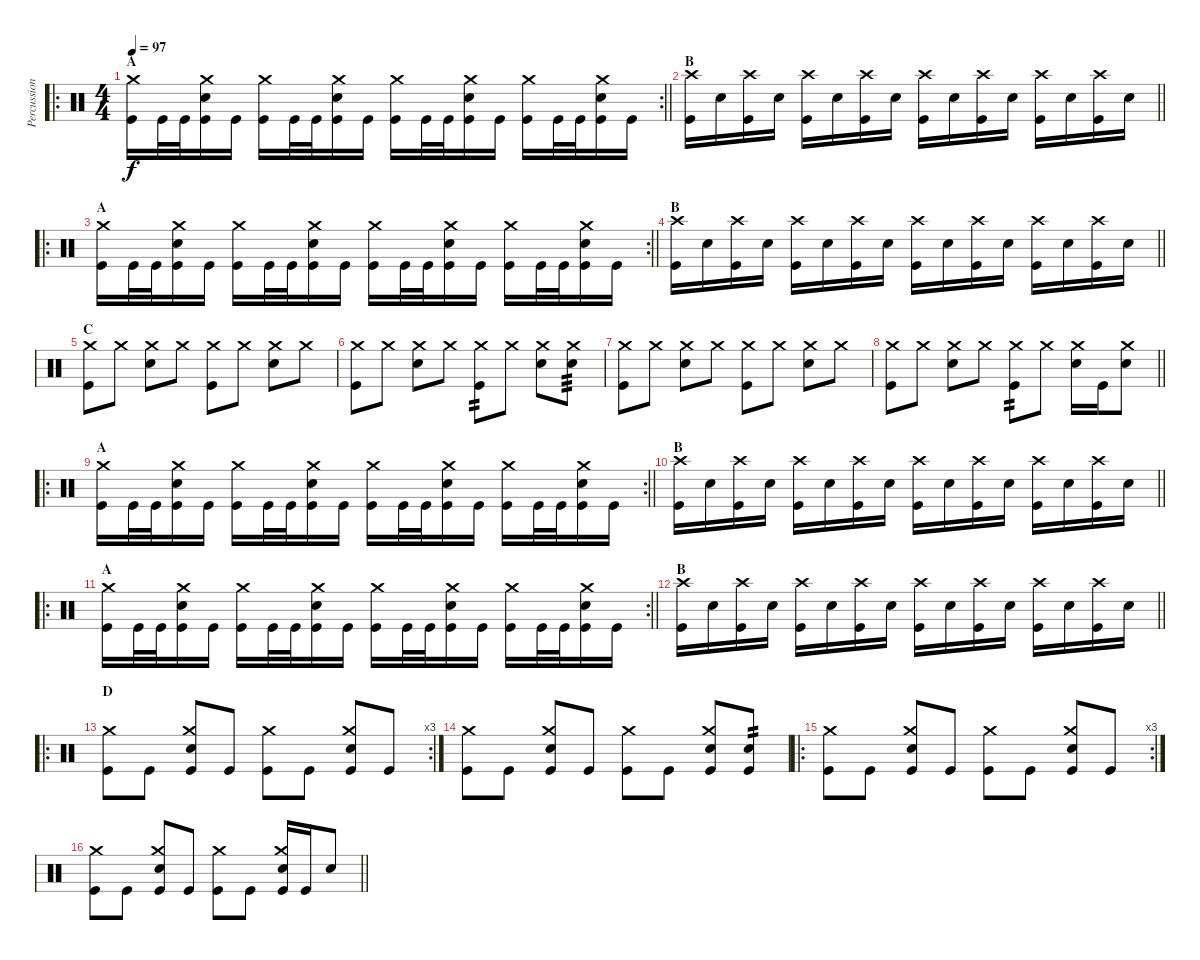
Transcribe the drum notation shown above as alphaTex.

\track ("Percussion" "Percussion") {instrument percussion}
\staff {score}
\articulation defaults
\ro
\rc 2
\ts (4 4)
\section ("" "A")
\tempo 97
\clef neutral
\barLineRight lightlight
\ks c
("Kick (hit)" "Crash medium (hit)").16{dy f} "Kick (hit)".32 "Kick (hit)".32 ("Kick (hit)" "Snare (hit) 2" "Crash medium (hit)").16 "Kick (hit)".16 ("Kick (hit)" "Crash medium (hit)").16 "Kick (hit)".32 "Kick (hit)".32 ("Kick (hit)" "Snare (hit) 2" "Crash medium (hit)").16 "Kick (hit)".16 ("Kick (hit)" "Crash medium (hit)").16 "Kick (hit)".32 "Kick (hit)".32 ("Kick (hit)" "Snare (hit) 2" "Crash medium (hit)").16 "Kick (hit)".16 ("Kick (hit)" "Crash medium (hit)").16 "Kick (hit)".32 "Kick (hit)".32 ("Kick (hit)" "Snare (hit) 2" "Crash medium (hit)").16 "Kick (hit)".16 |
\section ("" "B")
\barLineRight lightlight
("Kick (hit)" "Crash high (hit)").16 "Snare (hit) 2".16 ("Kick (hit)" "Crash high (hit)").16 "Snare (hit) 2".16 ("Kick (hit)" "Crash high (hit)").16 "Snare (hit) 2".16 ("Kick (hit)" "Crash high (hit)").16 "Snare (hit) 2".16 ("Kick (hit)" "Crash high (hit)").16 "Snare (hit) 2".16 ("Kick (hit)" "Crash high (hit)").16 "Snare (hit) 2".16 ("Kick (hit)" "Crash high (hit)").16 "Snare (hit) 2".16 ("Kick (hit)" "Crash high (hit)").16 "Snare (hit) 2".16 |
\ro
\rc 2
\section ("" "A")
\barLineRight lightlight
("Kick (hit)" "Crash medium (hit)").16 "Kick (hit)".32 "Kick (hit)".32 ("Kick (hit)" "Snare (hit) 2" "Crash medium (hit)").16 "Kick (hit)".16 ("Kick (hit)" "Crash medium (hit)").16 "Kick (hit)".32 "Kick (hit)".32 ("Kick (hit)" "Snare (hit) 2" "Crash medium (hit)").16 "Kick (hit)".16 ("Kick (hit)" "Crash medium (hit)").16 "Kick (hit)".32 "Kick (hit)".32 ("Kick (hit)" "Snare (hit) 2" "Crash medium (hit)").16 "Kick (hit)".16 ("Kick (hit)" "Crash medium (hit)").16 "Kick (hit)".32 "Kick (hit)".32 ("Kick (hit)" "Snare (hit) 2" "Crash medium (hit)").16 "Kick (hit)".16 |
\section ("" "B")
\barLineRight lightlight
("Kick (hit)" "Crash high (hit)").16 "Snare (hit) 2".16 ("Kick (hit)" "Crash high (hit)").16 "Snare (hit) 2".16 ("Kick (hit)" "Crash high (hit)").16 "Snare (hit) 2".16 ("Kick (hit)" "Crash high (hit)").16 "Snare (hit) 2".16 ("Kick (hit)" "Crash high (hit)").16 "Snare (hit) 2".16 ("Kick (hit)" "Crash high (hit)").16 "Snare (hit) 2".16 ("Kick (hit)" "Crash high (hit)").16 "Snare (hit) 2".16 ("Kick (hit)" "Crash high (hit)").16 "Snare (hit) 2".16 |
\section ("" "C")
("Kick (hit)" "Crash medium (hit)").8 "Crash medium (hit)".8 ("Snare (hit) 2" "Crash medium (hit)").8 "Crash medium (hit)".8 ("Kick (hit)" "Crash medium (hit)").8 "Crash medium (hit)".8 ("Snare (hit) 2" "Crash medium (hit)").8 "Crash medium (hit)".8 |
("Kick (hit)" "Crash medium (hit)").8 "Crash medium (hit)".8 ("Snare (hit) 2" "Crash medium (hit)").8 "Crash medium (hit)".8 ("Kick (hit)" "Crash medium (hit)").8{tp 2} "Crash medium (hit)".8 ("Snare (hit) 2" "Crash medium (hit)").8 ("Snare (hit) 2" "Crash medium (hit)").8{tp 3} |
("Kick (hit)" "Crash medium (hit)").8 "Crash medium (hit)".8 ("Snare (hit) 2" "Crash medium (hit)").8 "Crash medium (hit)".8 ("Kick (hit)" "Crash medium (hit)").8 "Crash medium (hit)".8 ("Snare (hit) 2" "Crash medium (hit)").8 "Crash medium (hit)".8 |
\barLineRight lightlight
("Kick (hit)" "Crash medium (hit)").8 "Crash medium (hit)".8 ("Snare (hit) 2" "Crash medium (hit)").8 "Crash medium (hit)".8 ("Kick (hit)" "Crash medium (hit)").8{tp 2} "Crash medium (hit)".8 ("Snare (hit) 2" "Crash medium (hit)").16 "Kick (hit)".16 ("Snare (hit) 2" "Crash medium (hit)").8 |
\ro
\rc 2
\section ("" "A")
\barLineRight lightlight
("Kick (hit)" "Crash medium (hit)").16 "Kick (hit)".32 "Kick (hit)".32 ("Kick (hit)" "Snare (hit) 2" "Crash medium (hit)").16 "Kick (hit)".16 ("Kick (hit)" "Crash medium (hit)").16 "Kick (hit)".32 "Kick (hit)".32 ("Kick (hit)" "Snare (hit) 2" "Crash medium (hit)").16 "Kick (hit)".16 ("Kick (hit)" "Crash medium (hit)").16 "Kick (hit)".32 "Kick (hit)".32 ("Kick (hit)" "Snare (hit) 2" "Crash medium (hit)").16 "Kick (hit)".16 ("Kick (hit)" "Crash medium (hit)").16 "Kick (hit)".32 "Kick (hit)".32 ("Kick (hit)" "Snare (hit) 2" "Crash medium (hit)").16 "Kick (hit)".16 |
\section ("" "B")
\barLineRight lightlight
("Kick (hit)" "Crash high (hit)").16 "Snare (hit) 2".16 ("Kick (hit)" "Crash high (hit)").16 "Snare (hit) 2".16 ("Kick (hit)" "Crash high (hit)").16 "Snare (hit) 2".16 ("Kick (hit)" "Crash high (hit)").16 "Snare (hit) 2".16 ("Kick (hit)" "Crash high (hit)").16 "Snare (hit) 2".16 ("Kick (hit)" "Crash high (hit)").16 "Snare (hit) 2".16 ("Kick (hit)" "Crash high (hit)").16 "Snare (hit) 2".16 ("Kick (hit)" "Crash high (hit)").16 "Snare (hit) 2".16 |
\ro
\rc 2
\section ("" "A")
\barLineRight lightlight
("Kick (hit)" "Crash medium (hit)").16 "Kick (hit)".32 "Kick (hit)".32 ("Kick (hit)" "Snare (hit) 2" "Crash medium (hit)").16 "Kick (hit)".16 ("Kick (hit)" "Crash medium (hit)").16 "Kick (hit)".32 "Kick (hit)".32 ("Kick (hit)" "Snare (hit) 2" "Crash medium (hit)").16 "Kick (hit)".16 ("Kick (hit)" "Crash medium (hit)").16 "Kick (hit)".32 "Kick (hit)".32 ("Kick (hit)" "Snare (hit) 2" "Crash medium (hit)").16 "Kick (hit)".16 ("Kick (hit)" "Crash medium (hit)").16 "Kick (hit)".32 "Kick (hit)".32 ("Kick (hit)" "Snare (hit) 2" "Crash medium (hit)").16 "Kick (hit)".16 |
\section ("" "B")
\barLineRight lightlight
("Kick (hit)" "Crash high (hit)").16 "Snare (hit) 2".16 ("Kick (hit)" "Crash high (hit)").16 "Snare (hit) 2".16 ("Kick (hit)" "Crash high (hit)").16 "Snare (hit) 2".16 ("Kick (hit)" "Crash high (hit)").16 "Snare (hit) 2".16 ("Kick (hit)" "Crash high (hit)").16 "Snare (hit) 2".16 ("Kick (hit)" "Crash high (hit)").16 "Snare (hit) 2".16 ("Kick (hit)" "Crash high (hit)").16 "Snare (hit) 2".16 ("Kick (hit)" "Crash high (hit)").16 "Snare (hit) 2".16 |
\ro
\rc 3
\section ("" "D")
("Kick (hit)" "Crash medium (hit)").8 "Kick (hit)".8 ("Kick (hit)" "Snare (hit) 2" "Crash medium (hit)").8 "Kick (hit)".8 ("Kick (hit)" "Crash medium (hit)").8 "Kick (hit)".8 ("Kick (hit)" "Snare (hit) 2" "Crash medium (hit)").8 "Kick (hit)".8 |
("Kick (hit)" "Crash medium (hit)").8 "Kick (hit)".8 ("Kick (hit)" "Snare (hit) 2" "Crash medium (hit)").8 "Kick (hit)".8 ("Kick (hit)" "Crash medium (hit)").8 "Kick (hit)".8 ("Kick (hit)" "Snare (hit) 2" "Crash medium (hit)").8 ("Kick (hit)" "Snare (hit) 2").8{tp 2} |
\ro
\rc 3
("Kick (hit)" "Crash medium (hit)").8 "Kick (hit)".8 ("Kick (hit)" "Snare (hit) 2" "Crash medium (hit)").8 "Kick (hit)".8 ("Kick (hit)" "Crash medium (hit)").8 "Kick (hit)".8 ("Kick (hit)" "Snare (hit) 2" "Crash medium (hit)").8 "Kick (hit)".8 |
\barLineRight lightlight
("Kick (hit)" "Crash medium (hit)").8 "Kick (hit)".8 ("Kick (hit)" "Snare (hit) 2" "Crash medium (hit)").8 "Kick (hit)".8 ("Kick (hit)" "Crash medium (hit)").8 "Kick (hit)".8 ("Kick (hit)" "Snare (hit) 2" "Crash medium (hit)").16 "Kick (hit)".16 "Snare (hit) 2".8
